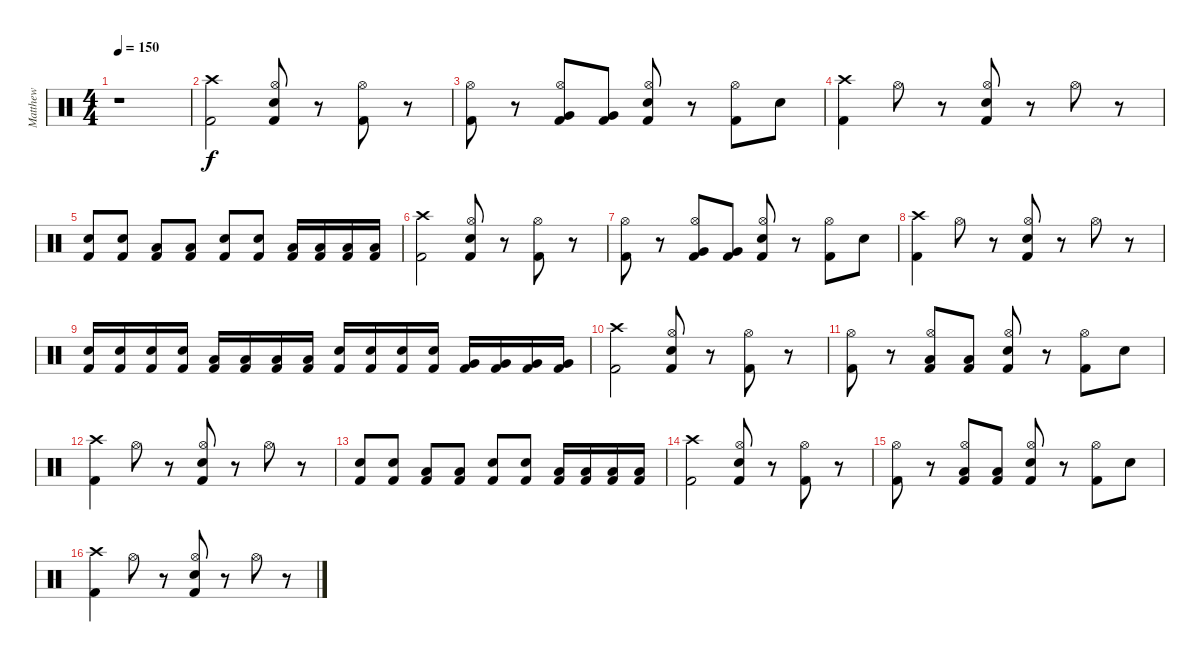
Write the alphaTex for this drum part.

\track ("Matthew" "Matthew") {instrument percussion}
\staff {score}
\articulation defaults
\ts (4 4)
\tempo 150
\clef neutral
\ks c
r.1{dy f} |
("Crash high (hit)" "Kick (hit) 2").2 ("Hi-Hat (open)" "Snare (hit) 2" "Kick (hit) 2").8 r.8 ("Hi-Hat (open)" "Kick (hit) 2").8 r.8 |
("Hi-Hat (open)" "Kick (hit) 2").8 r.8 ("Hi-Hat (open)" "Very Low Tom (hit)" "Kick (hit) 2").8 ("Very Low Tom (hit)" "Kick (hit) 2").8 ("Hi-Hat (open)" "Snare (hit) 2" "Kick (hit) 2").8 r.8 ("Hi-Hat (open)" "Kick (hit) 2").8 "Snare (hit) 2".8 |
("Crash high (hit)" "Kick (hit) 2").4 "Hi-Hat (open)".8 r.8 ("Hi-Hat (open)" "Snare (hit) 2" "Kick (hit) 2").8 r.8 "Hi-Hat (open)".8 r.8 |
("Snare (hit) 2" "Kick (hit) 2").8 ("Snare (hit) 2" "Kick (hit) 2").8 ("Low Tom (hit)" "Kick (hit) 2").8 ("Low Tom (hit)" "Kick (hit) 2").8 ("Snare (hit) 2" "Kick (hit) 2").8 ("Snare (hit) 2" "Kick (hit) 2").8 ("Low Tom (hit)" "Kick (hit) 2").16 ("Low Tom (hit)" "Kick (hit) 2").16 ("Low Tom (hit)" "Kick (hit) 2").16 ("Low Tom (hit)" "Kick (hit) 2").16 |
("Crash high (hit)" "Kick (hit) 2").2 ("Hi-Hat (open)" "Snare (hit) 2" "Kick (hit) 2").8 r.8 ("Hi-Hat (open)" "Kick (hit) 2").8 r.8 |
("Hi-Hat (open)" "Kick (hit) 2").8 r.8 ("Hi-Hat (open)" "Very Low Tom (hit)" "Kick (hit) 2").8 ("Very Low Tom (hit)" "Kick (hit) 2").8 ("Hi-Hat (open)" "Snare (hit) 2" "Kick (hit) 2").8 r.8 ("Hi-Hat (open)" "Kick (hit) 2").8 "Snare (hit) 2".8 |
("Crash high (hit)" "Kick (hit) 2").4 "Hi-Hat (open)".8 r.8 ("Hi-Hat (open)" "Snare (hit) 2" "Kick (hit) 2").8 r.8 "Hi-Hat (open)".8 r.8 |
("Snare (hit) 2" "Kick (hit) 2").16 ("Snare (hit) 2" "Kick (hit) 2").16 ("Snare (hit) 2" "Kick (hit) 2").16 ("Snare (hit) 2" "Kick (hit) 2").16 ("Low Tom (hit)" "Kick (hit) 2").16 ("Low Tom (hit)" "Kick (hit) 2").16 ("Low Tom (hit)" "Kick (hit) 2").16 ("Low Tom (hit)" "Kick (hit) 2").16 ("Snare (hit) 2" "Kick (hit) 2").16 ("Snare (hit) 2" "Kick (hit) 2").16 ("Snare (hit) 2" "Kick (hit) 2").16 ("Snare (hit) 2" "Kick (hit) 2").16 ("Very Low Tom (hit)" "Kick (hit) 2").16 ("Very Low Tom (hit)" "Kick (hit) 2").16 ("Very Low Tom (hit)" "Kick (hit) 2").16 ("Very Low Tom (hit)" "Kick (hit) 2").16 |
("Crash high (hit)" "Kick (hit) 2").2 ("Hi-Hat (open)" "Snare (hit) 2" "Kick (hit) 2").8 r.8 ("Hi-Hat (open)" "Kick (hit) 2").8 r.8 |
("Hi-Hat (open)" "Kick (hit) 2").8 r.8 ("Hi-Hat (open)" "Low Floor Tom (hit)" "Kick (hit) 2").8 ("Low Floor Tom (hit)" "Kick (hit) 2").8 ("Hi-Hat (open)" "Snare (hit) 2" "Kick (hit) 2").8 r.8 ("Hi-Hat (open)" "Kick (hit) 2").8 "Snare (hit) 2".8 |
("Crash high (hit)" "Kick (hit) 2").4 "Hi-Hat (open)".8 r.8 ("Hi-Hat (open)" "Snare (hit) 2" "Kick (hit) 2").8 r.8 "Hi-Hat (open)".8 r.8 |
("Snare (hit) 2" "Kick (hit) 2").8 ("Snare (hit) 2" "Kick (hit) 2").8 ("Low Tom (hit)" "Kick (hit) 2").8 ("Low Tom (hit)" "Kick (hit) 2").8 ("Snare (hit) 2" "Kick (hit) 2").8 ("Snare (hit) 2" "Kick (hit) 2").8 ("Low Tom (hit)" "Kick (hit) 2").16 ("Low Tom (hit)" "Kick (hit) 2").16 ("Low Tom (hit)" "Kick (hit) 2").16 ("Low Tom (hit)" "Kick (hit) 2").16 |
("Crash high (hit)" "Kick (hit) 2").2 ("Hi-Hat (open)" "Snare (hit) 2" "Kick (hit) 2").8 r.8 ("Hi-Hat (open)" "Kick (hit) 2").8 r.8 |
("Hi-Hat (open)" "Kick (hit) 2").8 r.8 ("Hi-Hat (open)" "Low Floor Tom (hit)" "Kick (hit) 2").8 ("Low Floor Tom (hit)" "Kick (hit) 2").8 ("Hi-Hat (open)" "Snare (hit) 2" "Kick (hit) 2").8 r.8 ("Hi-Hat (open)" "Kick (hit) 2").8 "Snare (hit) 2".8 |
("Crash high (hit)" "Kick (hit) 2").4 "Hi-Hat (open)".8 r.8 ("Hi-Hat (open)" "Snare (hit) 2" "Kick (hit) 2").8 r.8 "Hi-Hat (open)".8 r.8
